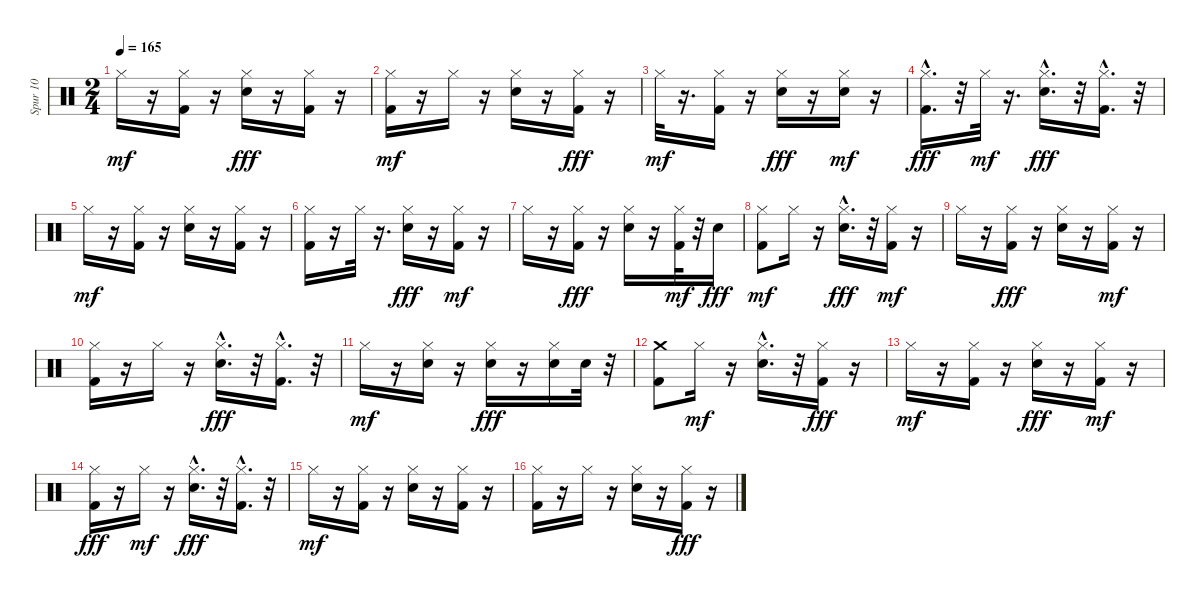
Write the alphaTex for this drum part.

\track ("Spur 10" "Spur 10") {instrument percussion}
\staff {score}
\articulation defaults
\ts (2 4)
\tempo 165
\clef neutral
\ks c "Hi-Hat (closed)".16{dy mf}
r.16 ("Kick (hit) 2" "Hi-Hat (closed)").16 r.16 ("Hi-Hat (closed)" "Electric Snare (hit)").16{dy fff} r.16 ("Hi-Hat (closed)" "Kick (hit) 2").16 r.16 |
("Kick (hit) 2" "Hi-Hat (closed)").16{dy mf} r.16 "Hi-Hat (closed)".16 r.16 ("Electric Snare (hit)" "Hi-Hat (closed)").16 r.16 ("Hi-Hat (closed)" "Kick (hit) 2").16{dy fff} r.16 |
"Hi-Hat (closed)".32{dy mf} r.16{d} ("Kick (hit) 2" "Hi-Hat (closed)").16 r.16 ("Hi-Hat (closed)" "Electric Snare (hit)").16{dy fff} r.16 ("Electric Snare (hit)" "Hi-Hat (closed)").16{dy mf} r.16 |
("Hi-Hat (closed)" "Kick (hit) 2"{hac}).16{d dy fff} r.32 "Hi-Hat (closed)".32{dy mf} r.16{d} ("Hi-Hat (closed)" "Electric Snare (hit)"{hac}).16{d dy fff} r.32 ("Hi-Hat (closed)" "Kick (hit) 2"{hac}).16{d} r.32 |
"Hi-Hat (closed)".16{dy mf} r.16 ("Kick (hit) 2" "Hi-Hat (closed)").16 r.16 ("Electric Snare (hit)" "Hi-Hat (closed)").16 r.16 ("Kick (hit) 2" "Hi-Hat (closed)").16 r.16 |
("Kick (hit) 2" "Hi-Hat (closed)").16 r.16 "Hi-Hat (closed)".32 r.16{d} ("Hi-Hat (closed)" "Electric Snare (hit)").16{dy fff} r.16 ("Kick (hit) 2" "Hi-Hat (closed)").16{dy mf} r.16 |
"Hi-Hat (closed)".16 r.16 ("Hi-Hat (closed)" "Kick (hit) 2").16{dy fff} r.16 ("Hi-Hat (closed)" "Electric Snare (hit)").16 r.16 ("Kick (hit) 2" "Hi-Hat (closed)").32{dy mf} r.32 "Electric Snare (hit)".16{dy fff} |
("Kick (hit) 2" "Hi-Hat (closed)").8{dy mf} "Hi-Hat (closed)".16 r.16 ("Hi-Hat (closed)" "Electric Snare (hit)"{hac}).16{d dy fff} r.32 ("Kick (hit) 2" "Hi-Hat (closed)").16{dy mf} r.16 |
"Hi-Hat (closed)".16 r.16 ("Hi-Hat (closed)" "Kick (hit) 2").16{dy fff} r.16 ("Hi-Hat (closed)" "Electric Snare (hit)").16 r.16 ("Kick (hit) 2" "Hi-Hat (closed)").16{dy mf} r.16 |
("Kick (hit) 2" "Hi-Hat (closed)").16 r.16 "Hi-Hat (closed)".16 r.16 ("Hi-Hat (closed)" "Electric Snare (hit)"{hac}).16{d dy fff} r.32 ("Hi-Hat (closed)" "Kick (hit) 2"{hac}).16{d} r.32 |
"Hi-Hat (closed)".16{dy mf} r.16 ("Electric Snare (hit)" "Hi-Hat (closed)").16 r.16 ("Hi-Hat (closed)" "Electric Snare (hit)").16{dy fff} r.16 ("Hi-Hat (closed)" "Electric Snare (hit)").16 "Electric Snare (hit)".32 r.32 |
("Crash medium (hit)" "Kick (hit) 2").8 "Hi-Hat (closed)".16{dy mf} r.16 ("Electric Snare (hit)"{hac} "Hi-Hat (closed)").16{d} r.32 ("Hi-Hat (closed)" "Kick (hit) 2").16{dy fff} r.16 |
"Hi-Hat (closed)".16{dy mf} r.16 ("Kick (hit) 2" "Hi-Hat (closed)").16 r.16 ("Hi-Hat (closed)" "Electric Snare (hit)").16{dy fff} r.16 ("Kick (hit) 2" "Hi-Hat (closed)").16{dy mf} r.16 |
("Hi-Hat (closed)" "Kick (hit) 2").16{dy fff} r.16 "Hi-Hat (closed)".16{dy mf} r.16 ("Hi-Hat (closed)" "Electric Snare (hit)"{hac}).16{d dy fff} r.32 ("Hi-Hat (closed)" "Kick (hit) 2"{hac}).16{d} r.32 |
"Hi-Hat (closed)".16{dy mf} r.16 ("Kick (hit) 2" "Hi-Hat (closed)").16 r.16 ("Electric Snare (hit)" "Hi-Hat (closed)").16 r.16 ("Kick (hit) 2" "Hi-Hat (closed)").16 r.16 |
("Kick (hit) 2" "Hi-Hat (closed)").16 r.16 "Hi-Hat (closed)".16 r.16 ("Electric Snare (hit)" "Hi-Hat (closed)").16 r.16 ("Hi-Hat (closed)" "Kick (hit) 2").16{dy fff} r.16
